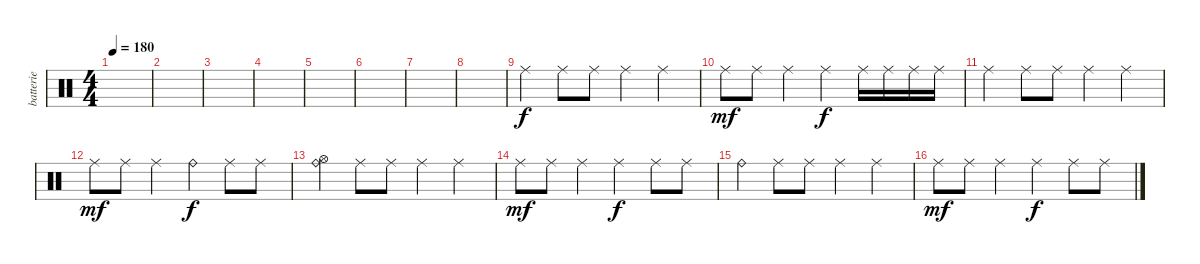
\track ("batterie" "batterie") {instrument percussion}
\staff {score}
\articulation defaults
\ts (4 4)
\tempo 180
\clef neutral
\ks c
|
|
|
|
|
|
|
|
"Ride (middle)".4 "Ride (middle)".8 "Ride (middle)".8 "Ride (middle)".4 "Ride (middle)".4 |
"Ride (middle)".8{dy mf} "Ride (middle)".8 "Ride (middle)".4 "Ride (middle)".4{dy f} "Ride (middle)".16 "Ride (middle)".16 "Ride (middle)".16 "Ride (middle)".16 |
"Ride (middle)".4 "Ride (middle)".8 "Ride (middle)".8 "Ride (middle)".4 "Ride (middle)".4 |
"Ride (middle)".8{dy mf} "Ride (middle)".8 "Ride (middle)".4 "Ride (bell)".4{dy f} "Ride (middle)".8 "Ride (middle)".8 |
("Hi-Hat (open)" "Ride (bell)").4 "Ride (middle)".8 "Ride (middle)".8 "Ride (middle)".4 "Ride (middle)".4 |
"Ride (middle)".8{dy mf} "Ride (middle)".8 "Ride (middle)".4 "Ride (middle)".4{dy f} "Ride (middle)".8 "Ride (middle)".8 |
"Ride (bell)".4 "Ride (middle)".8 "Ride (middle)".8 "Ride (middle)".4 "Ride (middle)".4 |
"Ride (middle)".8{dy mf} "Ride (middle)".8 "Ride (middle)".4 "Ride (middle)".4{dy f} "Ride (middle)".8 "Ride (middle)".8
